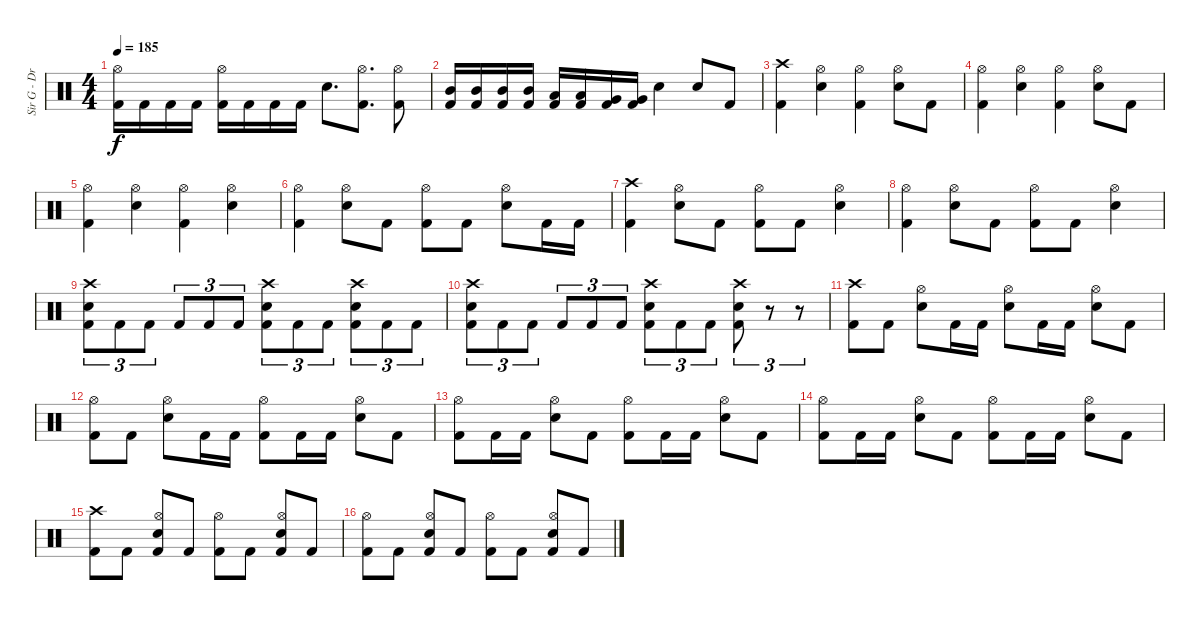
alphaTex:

\track ("Sir G - Drums" "Sir G - Dr") {instrument percussion}
\staff {score}
\articulation defaults
\ts (4 4)
\tempo 185
\clef neutral
\ks c
("Kick (hit) 2" "Hi-Hat (open)").16{dy f} "Kick (hit) 2".16 "Kick (hit) 2".16 "Kick (hit) 2".16 ("Kick (hit) 2" "Hi-Hat (open)").16 "Kick (hit) 2".16 "Kick (hit) 2".16 "Kick (hit) 2".16 "Electric Snare (hit)".8{d} ("Kick (hit) 2" "Hi-Hat (open)").8{d} ("Kick (hit) 2" "Hi-Hat (open)").8 |
("Kick (hit) 2" "Mid Tom (hit)").16 ("Kick (hit) 2" "Mid Tom (hit)").16 ("Kick (hit) 2" "Mid Tom (hit)").16 ("Kick (hit) 2" "Mid Tom (hit)").16 ("Kick (hit) 2" "Low Tom (hit)").16 ("Kick (hit) 2" "Low Tom (hit)").16 ("Kick (hit) 2" "Very Low Tom (hit)").16 ("Kick (hit) 2" "Very Low Tom (hit)").16 "Electric Snare (hit)".4 "Electric Snare (hit)".8 "Kick (hit) 2".8 |
("Kick (hit) 2" "Crash high (hit)").4 ("Electric Snare (hit)" "Hi-Hat (open)").4 ("Kick (hit) 2" "Hi-Hat (open)").4 ("Electric Snare (hit)" "Hi-Hat (open)").8 "Kick (hit) 2".8 |
("Kick (hit) 2" "Hi-Hat (open)").4 ("Electric Snare (hit)" "Hi-Hat (open)").4 ("Kick (hit) 2" "Hi-Hat (open)").4 ("Electric Snare (hit)" "Hi-Hat (open)").8 "Kick (hit) 2".8 |
("Kick (hit) 2" "Hi-Hat (open)").4 ("Electric Snare (hit)" "Hi-Hat (open)").4 ("Kick (hit) 2" "Hi-Hat (open)").4 ("Electric Snare (hit)" "Hi-Hat (open)").4 |
("Kick (hit) 2" "Hi-Hat (open)").4 ("Electric Snare (hit)" "Hi-Hat (open)").8 "Kick (hit) 2".8 ("Kick (hit) 2" "Hi-Hat (open)").8 "Kick (hit) 2".8 ("Electric Snare (hit)" "Hi-Hat (open)").8 "Kick (hit) 2".16 "Kick (hit) 2".16 |
("Kick (hit) 2" "Crash high (hit)").4 ("Electric Snare (hit)" "Hi-Hat (open)").8 "Kick (hit) 2".8 ("Kick (hit) 2" "Hi-Hat (open)").8 "Kick (hit) 2".8 ("Electric Snare (hit)" "Hi-Hat (open)").4 |
("Kick (hit) 2" "Hi-Hat (open)").4 ("Electric Snare (hit)" "Hi-Hat (open)").8 "Kick (hit) 2".8 ("Kick (hit) 2" "Hi-Hat (open)").8 "Kick (hit) 2".8 ("Electric Snare (hit)" "Hi-Hat (open)").4 |
("Kick (hit) 2" "Electric Snare (hit)" "Crash high (hit)").8{tu (3 2)} "Kick (hit) 2".8{tu (3 2)} "Kick (hit) 2".8{tu (3 2)} "Kick (hit) 2".8{tu (3 2)} "Kick (hit) 2".8{tu (3 2)} "Kick (hit) 2".8{tu (3 2)} ("Kick (hit) 2" "Electric Snare (hit)" "Crash high (hit)").8{tu (3 2)} "Kick (hit) 2".8{tu (3 2)} "Kick (hit) 2".8{tu (3 2)} ("Kick (hit) 2" "Electric Snare (hit)" "Crash high (hit)").8{tu (3 2)} "Kick (hit) 2".8{tu (3 2)} "Kick (hit) 2".8{tu (3 2)} |
("Kick (hit) 2" "Electric Snare (hit)" "Crash high (hit)").8{tu (3 2)} "Kick (hit) 2".8{tu (3 2)} "Kick (hit) 2".8{tu (3 2)} "Kick (hit) 2".8{tu (3 2)} "Kick (hit) 2".8{tu (3 2)} "Kick (hit) 2".8{tu (3 2)} ("Kick (hit) 2" "Electric Snare (hit)" "Crash high (hit)").8{tu (3 2)} "Kick (hit) 2".8{tu (3 2)} "Kick (hit) 2".8{tu (3 2)} ("Kick (hit) 2" "Electric Snare (hit)" "Crash high (hit)").8{tu (3 2)} r.8{tu (3 2)} r.8{tu (3 2)} |
("Kick (hit) 2" "Crash high (hit)").8 "Kick (hit) 2".8 ("Electric Snare (hit)" "Hi-Hat (open)").8 "Kick (hit) 2".16 "Kick (hit) 2".16 ("Electric Snare (hit)" "Hi-Hat (open)").8 "Kick (hit) 2".16 "Kick (hit) 2".16 ("Electric Snare (hit)" "Hi-Hat (open)").8 "Kick (hit) 2".8 |
("Kick (hit) 2" "Hi-Hat (open)").8 "Kick (hit) 2".8 ("Electric Snare (hit)" "Hi-Hat (open)").8 "Kick (hit) 2".16 "Kick (hit) 2".16 ("Kick (hit) 2" "Hi-Hat (open)").8 "Kick (hit) 2".16 "Kick (hit) 2".16 ("Electric Snare (hit)" "Hi-Hat (open)").8 "Kick (hit) 2".8 |
("Kick (hit) 2" "Hi-Hat (open)").8 "Kick (hit) 2".16 "Kick (hit) 2".16 ("Electric Snare (hit)" "Hi-Hat (open)").8 "Kick (hit) 2".8 ("Kick (hit) 2" "Hi-Hat (open)").8 "Kick (hit) 2".16 "Kick (hit) 2".16 ("Electric Snare (hit)" "Hi-Hat (open)").8 "Kick (hit) 2".8 |
("Kick (hit) 2" "Hi-Hat (open)").8 "Kick (hit) 2".16 "Kick (hit) 2".16 ("Electric Snare (hit)" "Hi-Hat (open)").8 "Kick (hit) 2".8 ("Kick (hit) 2" "Hi-Hat (open)").8 "Kick (hit) 2".16 "Kick (hit) 2".16 ("Electric Snare (hit)" "Hi-Hat (open)").8 "Kick (hit) 2".8 |
("Kick (hit) 2" "Crash high (hit)").8 "Kick (hit) 2".8 ("Kick (hit) 2" "Electric Snare (hit)" "Hi-Hat (open)").8 "Kick (hit) 2".8 ("Kick (hit) 2" "Hi-Hat (open)").8 "Kick (hit) 2".8 ("Kick (hit) 2" "Electric Snare (hit)" "Hi-Hat (open)").8 "Kick (hit) 2".8 |
("Kick (hit) 2" "Hi-Hat (open)").8 "Kick (hit) 2".8 ("Kick (hit) 2" "Electric Snare (hit)" "Hi-Hat (open)").8 "Kick (hit) 2".8 ("Kick (hit) 2" "Hi-Hat (open)").8 "Kick (hit) 2".8 ("Kick (hit) 2" "Electric Snare (hit)" "Hi-Hat (open)").8 "Kick (hit) 2".8
